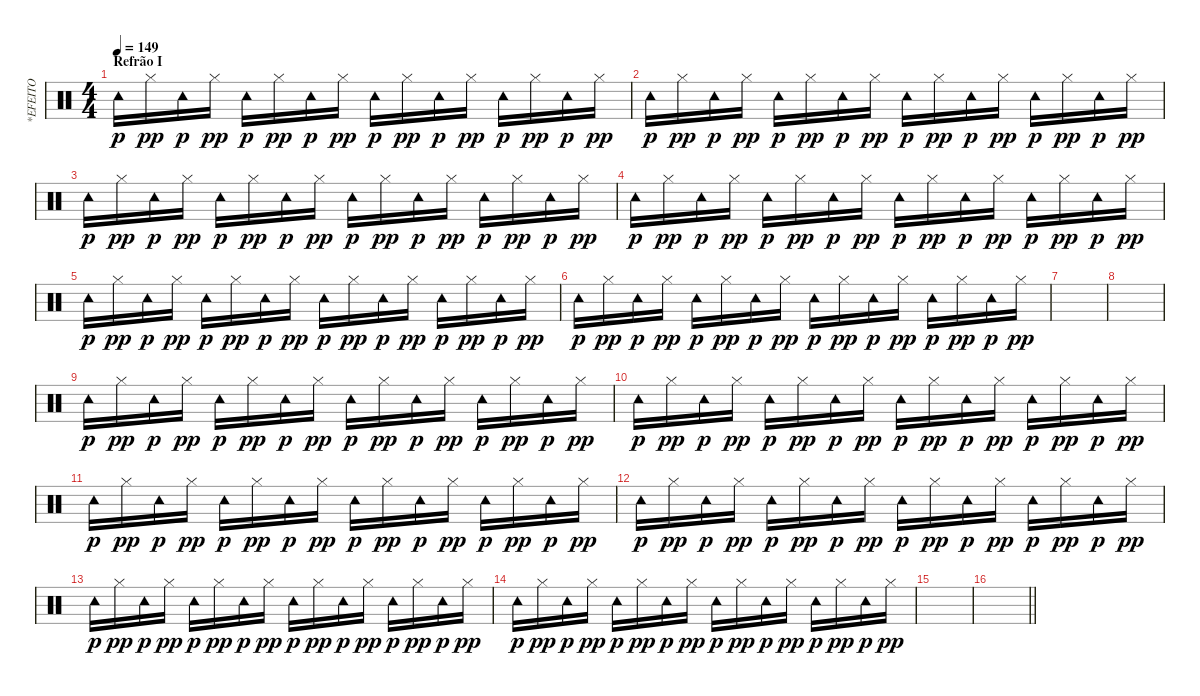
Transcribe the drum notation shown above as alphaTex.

\track ("*EFEITO" "*EFEITO") {instrument percussion}
\staff {score}
\articulation defaults
\ts (4 4)
\section ("" "Refrão I")
\tempo 149
\clef neutral
\ks c "Tambourine (hit)".16{dy p} "Hi-Hat (closed)".16{dy pp} "Tambourine (hit)".16{dy p} "Hi-Hat (closed)".16{dy pp} "Tambourine (hit)".16{dy p} "Hi-Hat (closed)".16{dy pp} "Tambourine (hit)".16{dy p} "Hi-Hat (closed)".16{dy pp} "Tambourine (hit)".16{dy p} "Hi-Hat (closed)".16{dy pp} "Tambourine (hit)".16{dy p} "Hi-Hat (closed)".16{dy pp} "Tambourine (hit)".16{dy p} "Hi-Hat (closed)".16{dy pp} "Tambourine (hit)".16{dy p} "Hi-Hat (closed)".16{dy pp}
|
"Tambourine (hit)".16{dy p} "Hi-Hat (closed)".16{dy pp} "Tambourine (hit)".16{dy p} "Hi-Hat (closed)".16{dy pp} "Tambourine (hit)".16{dy p} "Hi-Hat (closed)".16{dy pp} "Tambourine (hit)".16{dy p} "Hi-Hat (closed)".16{dy pp} "Tambourine (hit)".16{dy p} "Hi-Hat (closed)".16{dy pp} "Tambourine (hit)".16{dy p} "Hi-Hat (closed)".16{dy pp} "Tambourine (hit)".16{dy p} "Hi-Hat (closed)".16{dy pp} "Tambourine (hit)".16{dy p} "Hi-Hat (closed)".16{dy pp} |
"Tambourine (hit)".16{dy p} "Hi-Hat (closed)".16{dy pp} "Tambourine (hit)".16{dy p} "Hi-Hat (closed)".16{dy pp} "Tambourine (hit)".16{dy p} "Hi-Hat (closed)".16{dy pp} "Tambourine (hit)".16{dy p} "Hi-Hat (closed)".16{dy pp} "Tambourine (hit)".16{dy p} "Hi-Hat (closed)".16{dy pp} "Tambourine (hit)".16{dy p} "Hi-Hat (closed)".16{dy pp} "Tambourine (hit)".16{dy p} "Hi-Hat (closed)".16{dy pp} "Tambourine (hit)".16{dy p} "Hi-Hat (closed)".16{dy pp} |
"Tambourine (hit)".16{dy p} "Hi-Hat (closed)".16{dy pp} "Tambourine (hit)".16{dy p} "Hi-Hat (closed)".16{dy pp} "Tambourine (hit)".16{dy p} "Hi-Hat (closed)".16{dy pp} "Tambourine (hit)".16{dy p} "Hi-Hat (closed)".16{dy pp} "Tambourine (hit)".16{dy p} "Hi-Hat (closed)".16{dy pp} "Tambourine (hit)".16{dy p} "Hi-Hat (closed)".16{dy pp} "Tambourine (hit)".16{dy p} "Hi-Hat (closed)".16{dy pp} "Tambourine (hit)".16{dy p} "Hi-Hat (closed)".16{dy pp} |
"Tambourine (hit)".16{dy p} "Hi-Hat (closed)".16{dy pp} "Tambourine (hit)".16{dy p} "Hi-Hat (closed)".16{dy pp} "Tambourine (hit)".16{dy p} "Hi-Hat (closed)".16{dy pp} "Tambourine (hit)".16{dy p} "Hi-Hat (closed)".16{dy pp} "Tambourine (hit)".16{dy p} "Hi-Hat (closed)".16{dy pp} "Tambourine (hit)".16{dy p} "Hi-Hat (closed)".16{dy pp} "Tambourine (hit)".16{dy p} "Hi-Hat (closed)".16{dy pp} "Tambourine (hit)".16{dy p} "Hi-Hat (closed)".16{dy pp} |
"Tambourine (hit)".16{dy p} "Hi-Hat (closed)".16{dy pp} "Tambourine (hit)".16{dy p} "Hi-Hat (closed)".16{dy pp} "Tambourine (hit)".16{dy p} "Hi-Hat (closed)".16{dy pp} "Tambourine (hit)".16{dy p} "Hi-Hat (closed)".16{dy pp} "Tambourine (hit)".16{dy p} "Hi-Hat (closed)".16{dy pp} "Tambourine (hit)".16{dy p} "Hi-Hat (closed)".16{dy pp} "Tambourine (hit)".16{dy p} "Hi-Hat (closed)".16{dy pp} "Tambourine (hit)".16{dy p} "Hi-Hat (closed)".16{dy pp} |
|
|
"Tambourine (hit)".16{dy p} "Hi-Hat (closed)".16{dy pp} "Tambourine (hit)".16{dy p} "Hi-Hat (closed)".16{dy pp} "Tambourine (hit)".16{dy p} "Hi-Hat (closed)".16{dy pp} "Tambourine (hit)".16{dy p} "Hi-Hat (closed)".16{dy pp} "Tambourine (hit)".16{dy p} "Hi-Hat (closed)".16{dy pp} "Tambourine (hit)".16{dy p} "Hi-Hat (closed)".16{dy pp} "Tambourine (hit)".16{dy p} "Hi-Hat (closed)".16{dy pp} "Tambourine (hit)".16{dy p} "Hi-Hat (closed)".16{dy pp} |
"Tambourine (hit)".16{dy p} "Hi-Hat (closed)".16{dy pp} "Tambourine (hit)".16{dy p} "Hi-Hat (closed)".16{dy pp} "Tambourine (hit)".16{dy p} "Hi-Hat (closed)".16{dy pp} "Tambourine (hit)".16{dy p} "Hi-Hat (closed)".16{dy pp} "Tambourine (hit)".16{dy p} "Hi-Hat (closed)".16{dy pp} "Tambourine (hit)".16{dy p} "Hi-Hat (closed)".16{dy pp} "Tambourine (hit)".16{dy p} "Hi-Hat (closed)".16{dy pp} "Tambourine (hit)".16{dy p} "Hi-Hat (closed)".16{dy pp} |
"Tambourine (hit)".16{dy p} "Hi-Hat (closed)".16{dy pp} "Tambourine (hit)".16{dy p} "Hi-Hat (closed)".16{dy pp} "Tambourine (hit)".16{dy p} "Hi-Hat (closed)".16{dy pp} "Tambourine (hit)".16{dy p} "Hi-Hat (closed)".16{dy pp} "Tambourine (hit)".16{dy p} "Hi-Hat (closed)".16{dy pp} "Tambourine (hit)".16{dy p} "Hi-Hat (closed)".16{dy pp} "Tambourine (hit)".16{dy p} "Hi-Hat (closed)".16{dy pp} "Tambourine (hit)".16{dy p} "Hi-Hat (closed)".16{dy pp} |
"Tambourine (hit)".16{dy p} "Hi-Hat (closed)".16{dy pp} "Tambourine (hit)".16{dy p} "Hi-Hat (closed)".16{dy pp} "Tambourine (hit)".16{dy p} "Hi-Hat (closed)".16{dy pp} "Tambourine (hit)".16{dy p} "Hi-Hat (closed)".16{dy pp} "Tambourine (hit)".16{dy p} "Hi-Hat (closed)".16{dy pp} "Tambourine (hit)".16{dy p} "Hi-Hat (closed)".16{dy pp} "Tambourine (hit)".16{dy p} "Hi-Hat (closed)".16{dy pp} "Tambourine (hit)".16{dy p} "Hi-Hat (closed)".16{dy pp} |
"Tambourine (hit)".16{dy p} "Hi-Hat (closed)".16{dy pp} "Tambourine (hit)".16{dy p} "Hi-Hat (closed)".16{dy pp} "Tambourine (hit)".16{dy p} "Hi-Hat (closed)".16{dy pp} "Tambourine (hit)".16{dy p} "Hi-Hat (closed)".16{dy pp} "Tambourine (hit)".16{dy p} "Hi-Hat (closed)".16{dy pp} "Tambourine (hit)".16{dy p} "Hi-Hat (closed)".16{dy pp} "Tambourine (hit)".16{dy p} "Hi-Hat (closed)".16{dy pp} "Tambourine (hit)".16{dy p} "Hi-Hat (closed)".16{dy pp} |
"Tambourine (hit)".16{dy p} "Hi-Hat (closed)".16{dy pp} "Tambourine (hit)".16{dy p} "Hi-Hat (closed)".16{dy pp} "Tambourine (hit)".16{dy p} "Hi-Hat (closed)".16{dy pp} "Tambourine (hit)".16{dy p} "Hi-Hat (closed)".16{dy pp} "Tambourine (hit)".16{dy p} "Hi-Hat (closed)".16{dy pp} "Tambourine (hit)".16{dy p} "Hi-Hat (closed)".16{dy pp} "Tambourine (hit)".16{dy p} "Hi-Hat (closed)".16{dy pp} "Tambourine (hit)".16{dy p} "Hi-Hat (closed)".16{dy pp} |
|
\barLineRight lightlight
